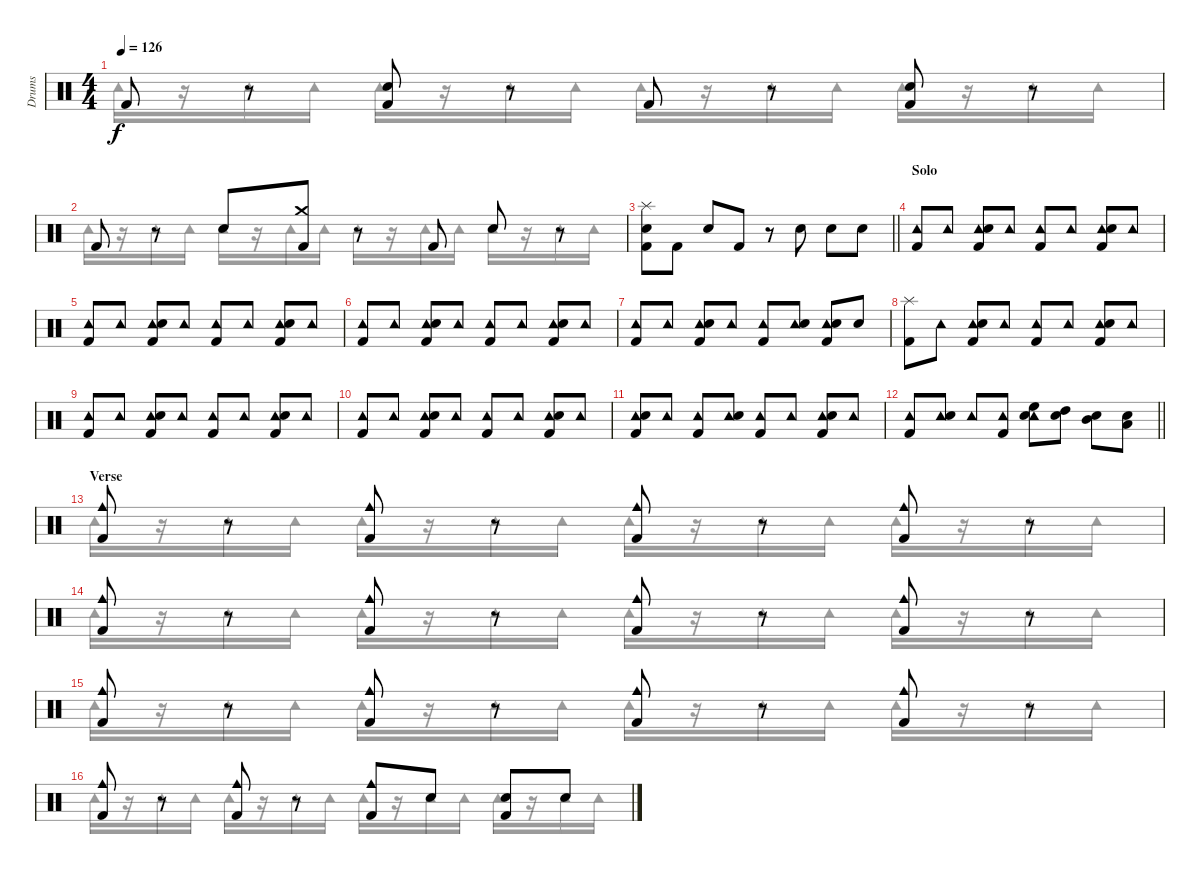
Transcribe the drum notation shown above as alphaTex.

\track ("Drums" "Drums") {instrument percussion}
\staff {score}
\articulation defaults
\voice
\ts (4 4)
\tempo 126
\clef neutral
\ks c "Kick (hit) 2".8{dy f}
r.8 ("Electric Snare (hit)" "Kick (hit) 2").8 r.8 "Kick (hit) 2".8 r.8 ("Electric Snare (hit)" "Kick (hit) 2").8 r.8 |
"Kick (hit) 2".8 r.8 "Electric Snare (hit)".8 ("Crash medium (hit)" "Kick (hit) 2").8 r.8 "Kick (hit) 2".8 "Electric Snare (hit)".8 r.8 |
\barLineRight lightlight
("Splash (hit)" "Electric Snare (hit)" "Kick (hit) 2").8 "Kick (hit) 2".8 "Electric Snare (hit)".8 "Kick (hit) 2".8 r.8 "Electric Snare (hit)".8 "Electric Snare (hit)".8 "Electric Snare (hit)".8 |
\section ("" "Solo")
("Tambourine (hit)" "Kick (hit) 2").8 "Tambourine (hit)".8 ("Tambourine (hit)" "Electric Snare (hit)" "Kick (hit) 2").8 "Tambourine (hit)".8 ("Tambourine (hit)" "Kick (hit) 2").8 "Tambourine (hit)".8 ("Tambourine (hit)" "Electric Snare (hit)" "Kick (hit) 2").8 "Tambourine (hit)".8 |
("Tambourine (hit)" "Kick (hit) 2").8 "Tambourine (hit)".8 ("Tambourine (hit)" "Electric Snare (hit)" "Kick (hit) 2").8 "Tambourine (hit)".8 ("Tambourine (hit)" "Kick (hit) 2").8 "Tambourine (hit)".8 ("Tambourine (hit)" "Electric Snare (hit)" "Kick (hit) 2").8 "Tambourine (hit)".8 |
("Tambourine (hit)" "Kick (hit) 2").8 "Tambourine (hit)".8 ("Tambourine (hit)" "Electric Snare (hit)" "Kick (hit) 2").8 "Tambourine (hit)".8 ("Tambourine (hit)" "Kick (hit) 2").8 "Tambourine (hit)".8 ("Tambourine (hit)" "Electric Snare (hit)" "Kick (hit) 2").8 "Tambourine (hit)".8 |
("Tambourine (hit)" "Kick (hit) 2").8 "Tambourine (hit)".8 ("Tambourine (hit)" "Electric Snare (hit)" "Kick (hit) 2").8 "Tambourine (hit)".8 ("Tambourine (hit)" "Kick (hit) 2").8 ("Tambourine (hit)" "Electric Snare (hit)").8 ("Tambourine (hit)" "Electric Snare (hit)" "Kick (hit) 2").8 "Electric Snare (hit)".8 |
("Splash (hit)" "Kick (hit) 2").8 "Tambourine (hit)".8 ("Tambourine (hit)" "Electric Snare (hit)" "Kick (hit) 2").8 "Tambourine (hit)".8 ("Tambourine (hit)" "Kick (hit) 2").8 "Tambourine (hit)".8 ("Tambourine (hit)" "Electric Snare (hit)" "Kick (hit) 2").8 "Tambourine (hit)".8 |
("Tambourine (hit)" "Kick (hit) 2").8 "Tambourine (hit)".8 ("Tambourine (hit)" "Electric Snare (hit)" "Kick (hit) 2").8 "Tambourine (hit)".8 ("Tambourine (hit)" "Kick (hit) 2").8 "Tambourine (hit)".8 ("Tambourine (hit)" "Electric Snare (hit)" "Kick (hit) 2").8 "Tambourine (hit)".8 |
("Tambourine (hit)" "Kick (hit) 2").8 "Tambourine (hit)".8 ("Tambourine (hit)" "Electric Snare (hit)" "Kick (hit) 2").8 "Tambourine (hit)".8 ("Tambourine (hit)" "Kick (hit) 2").8 "Tambourine (hit)".8 ("Tambourine (hit)" "Electric Snare (hit)" "Kick (hit) 2").8 "Tambourine (hit)".8 |
("Tambourine (hit)" "Electric Snare (hit)" "Kick (hit) 2").8 "Tambourine (hit)".8 ("Tambourine (hit)" "Kick (hit) 2").8 ("Tambourine (hit)" "Electric Snare (hit)").8 ("Tambourine (hit)" "Kick (hit) 2").8 "Tambourine (hit)".8 ("Tambourine (hit)" "Electric Snare (hit)" "Kick (hit) 2").8 "Tambourine (hit)".8 |
\barLineRight lightlight
("Tambourine (hit)" "Kick (hit) 2").8 ("Tambourine (hit)" "Electric Snare (hit)").8 "Tambourine (hit)".8 ("Tambourine (hit)" "Kick (hit) 2").8 ("Tambourine (hit)" "Electric Snare (hit)" "High Floor Tom (hit)").8 ("Electric Snare (hit)" "High Tom (hit)").8 ("Electric Snare (hit)" "Mid Tom (hit)").8 ("Electric Snare (hit)" "Low Tom (hit)").8 |
\section ("" "Verse")
("Cowbell medium (hit)" "Kick (hit) 2").8 r.8 ("Cowbell medium (hit)" "Kick (hit) 2").8 r.8 ("Cowbell medium (hit)" "Kick (hit) 2").8 r.8 ("Cowbell medium (hit)" "Kick (hit) 2").8 r.8 |
("Cowbell medium (hit)" "Kick (hit) 2").8 r.8 ("Cowbell medium (hit)" "Kick (hit) 2").8 r.8 ("Cowbell medium (hit)" "Kick (hit) 2").8 r.8 ("Cowbell medium (hit)" "Kick (hit) 2").8 r.8 |
("Cowbell medium (hit)" "Kick (hit) 2").8 r.8 ("Cowbell medium (hit)" "Kick (hit) 2").8 r.8 ("Cowbell medium (hit)" "Kick (hit) 2").8 r.8 ("Cowbell medium (hit)" "Kick (hit) 2").8 r.8 |
("Cowbell medium (hit)" "Kick (hit) 2").8 r.8 ("Cowbell medium (hit)" "Kick (hit) 2").8 r.8 ("Cowbell medium (hit)" "Kick (hit) 2").8 "Electric Snare (hit)".8 ("Electric Snare (hit)" "Kick (hit) 2").8 "Electric Snare (hit)".8
\voice
\clef neutral
\ottava regular
\simile none
\ks c "Tambourine (hit)".16{dy f}
r.16 "Tambourine (hit)".16 "Tambourine (hit)".16 "Tambourine (hit)".16 r.16 "Tambourine (hit)".16 "Tambourine (hit)".16 "Tambourine (hit)".16 r.16 "Tambourine (hit)".16 "Tambourine (hit)".16 "Tambourine (hit)".16 r.16 "Tambourine (hit)".16 "Tambourine (hit)".16 |
"Tambourine (hit)".16 r.16 "Tambourine (hit)".16 "Tambourine (hit)".16 "Tambourine (hit)".16 r.16 "Tambourine (hit)".16 "Tambourine (hit)".16 "Tambourine (hit)".16 r.16 "Tambourine (hit)".16 "Tambourine (hit)".16 "Tambourine (hit)".16 r.16 "Tambourine (hit)".16 "Tambourine (hit)".16 |
\barLineRight lightlight
|
|
|
|
|
|
|
|
|
\barLineRight lightlight
|
"Tambourine (hit)".16 r.16 "Tambourine (hit)".16 "Tambourine (hit)".16 "Tambourine (hit)".16 r.16 "Tambourine (hit)".16 "Tambourine (hit)".16 "Tambourine (hit)".16 r.16 "Tambourine (hit)".16 "Tambourine (hit)".16 "Tambourine (hit)".16 r.16 "Tambourine (hit)".16 "Tambourine (hit)".16 |
"Tambourine (hit)".16 r.16 "Tambourine (hit)".16 "Tambourine (hit)".16 "Tambourine (hit)".16 r.16 "Tambourine (hit)".16 "Tambourine (hit)".16 "Tambourine (hit)".16 r.16 "Tambourine (hit)".16 "Tambourine (hit)".16 "Tambourine (hit)".16 r.16 "Tambourine (hit)".16 "Tambourine (hit)".16 |
"Tambourine (hit)".16 r.16 "Tambourine (hit)".16 "Tambourine (hit)".16 "Tambourine (hit)".16 r.16 "Tambourine (hit)".16 "Tambourine (hit)".16 "Tambourine (hit)".16 r.16 "Tambourine (hit)".16 "Tambourine (hit)".16 "Tambourine (hit)".16 r.16 "Tambourine (hit)".16 "Tambourine (hit)".16 |
"Tambourine (hit)".16 r.16 "Tambourine (hit)".16 "Tambourine (hit)".16 "Tambourine (hit)".16 r.16 "Tambourine (hit)".16 "Tambourine (hit)".16 "Tambourine (hit)".16 r.16 "Tambourine (hit)".16 "Tambourine (hit)".16 "Tambourine (hit)".16 r.16 "Tambourine (hit)".16 "Tambourine (hit)".16
